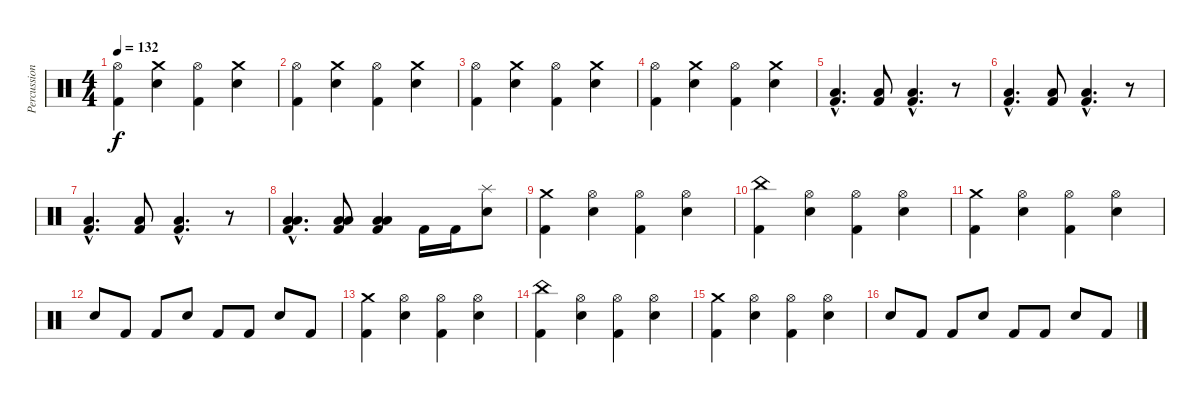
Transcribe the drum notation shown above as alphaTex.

\track ("Percussioni" "Percussion") {instrument percussion}
\staff {score}
\articulation defaults
\ts (4 4)
\tempo 132
\clef neutral
\ks c
("Hi-Hat (open)" "Kick (hit) 2").4{dy f} ("Crash medium (hit)" "Snare (hit) 2").4 ("Hi-Hat (open)" "Kick (hit) 2").4 ("Crash medium (hit)" "Snare (hit) 2").4 |
("Hi-Hat (open)" "Kick (hit) 2").4 ("Crash medium (hit)" "Snare (hit) 2").4 ("Hi-Hat (open)" "Kick (hit) 2").4 ("Crash medium (hit)" "Snare (hit) 2").4 |
("Hi-Hat (open)" "Kick (hit) 2").4 ("Crash medium (hit)" "Snare (hit) 2").4 ("Hi-Hat (open)" "Kick (hit) 2").4 ("Crash medium (hit)" "Snare (hit) 2").4 |
("Hi-Hat (open)" "Kick (hit) 2").4 ("Crash medium (hit)" "Snare (hit) 2").4 ("Hi-Hat (open)" "Kick (hit) 2").4 ("Crash medium (hit)" "Snare (hit) 2").4 |
("Low Floor Tom (hit)"{hac} "Kick (hit) 2"{hac}).4{d} ("Low Floor Tom (hit)" "Kick (hit) 2").8 ("Low Floor Tom (hit)"{hac} "Kick (hit) 2"{hac}).4{d} r.8 |
("Low Floor Tom (hit)"{hac} "Kick (hit) 2"{hac}).4{d} ("Low Floor Tom (hit)" "Kick (hit) 2").8 ("Low Floor Tom (hit)"{hac} "Kick (hit) 2"{hac}).4{d} r.8 |
("Low Floor Tom (hit)"{hac} "Kick (hit) 2"{hac}).4{d} ("Low Floor Tom (hit)" "Kick (hit) 2").8 ("Low Floor Tom (hit)"{hac} "Kick (hit) 2"{hac}).4{d} r.8 |
("Low Floor Tom (hit)"{hac} "Low Floor Tom (hit)"{hac} "Kick (hit) 2"{hac}).4{d} ("Low Floor Tom (hit)" "Low Floor Tom (hit)" "Kick (hit) 2").8 ("Low Floor Tom (hit)" "Low Floor Tom (hit)" "Kick (hit) 2").4 "Kick (hit) 2".16 "Kick (hit) 2".16 ("Splash (hit)" "Snare (hit) 2").8 |
("Crash medium (hit)" "Kick (hit) 2").4 ("Hi-Hat (open)" "Snare (hit) 2").4 ("Hi-Hat (open)" "Kick (hit) 2").4 ("Hi-Hat (open)" "Snare (hit) 2").4 |
("China (hit)" "Kick (hit) 2").4 ("Hi-Hat (open)" "Snare (hit) 2").4 ("Hi-Hat (open)" "Kick (hit) 2").4 ("Hi-Hat (open)" "Snare (hit) 2").4 |
("Crash medium (hit)" "Kick (hit) 2").4 ("Hi-Hat (open)" "Snare (hit) 2").4 ("Hi-Hat (open)" "Kick (hit) 2").4 ("Hi-Hat (open)" "Snare (hit) 2").4 |
"Snare (hit) 2".8 "Kick (hit) 2".8 "Kick (hit) 2".8 "Snare (hit) 2".8 "Kick (hit) 2".8 "Kick (hit) 2".8 "Snare (hit) 2".8 "Kick (hit) 2".8 |
("Crash medium (hit)" "Kick (hit) 2").4 ("Hi-Hat (open)" "Snare (hit) 2").4 ("Hi-Hat (open)" "Kick (hit) 2").4 ("Hi-Hat (open)" "Snare (hit) 2").4 |
("China (hit)" "Kick (hit) 2").4 ("Hi-Hat (open)" "Snare (hit) 2").4 ("Hi-Hat (open)" "Kick (hit) 2").4 ("Hi-Hat (open)" "Snare (hit) 2").4 |
("Crash medium (hit)" "Kick (hit) 2").4 ("Hi-Hat (open)" "Snare (hit) 2").4 ("Hi-Hat (open)" "Kick (hit) 2").4 ("Hi-Hat (open)" "Snare (hit) 2").4 |
"Snare (hit) 2".8 "Kick (hit) 2".8 "Kick (hit) 2".8 "Snare (hit) 2".8 "Kick (hit) 2".8 "Kick (hit) 2".8 "Snare (hit) 2".8 "Kick (hit) 2".8
